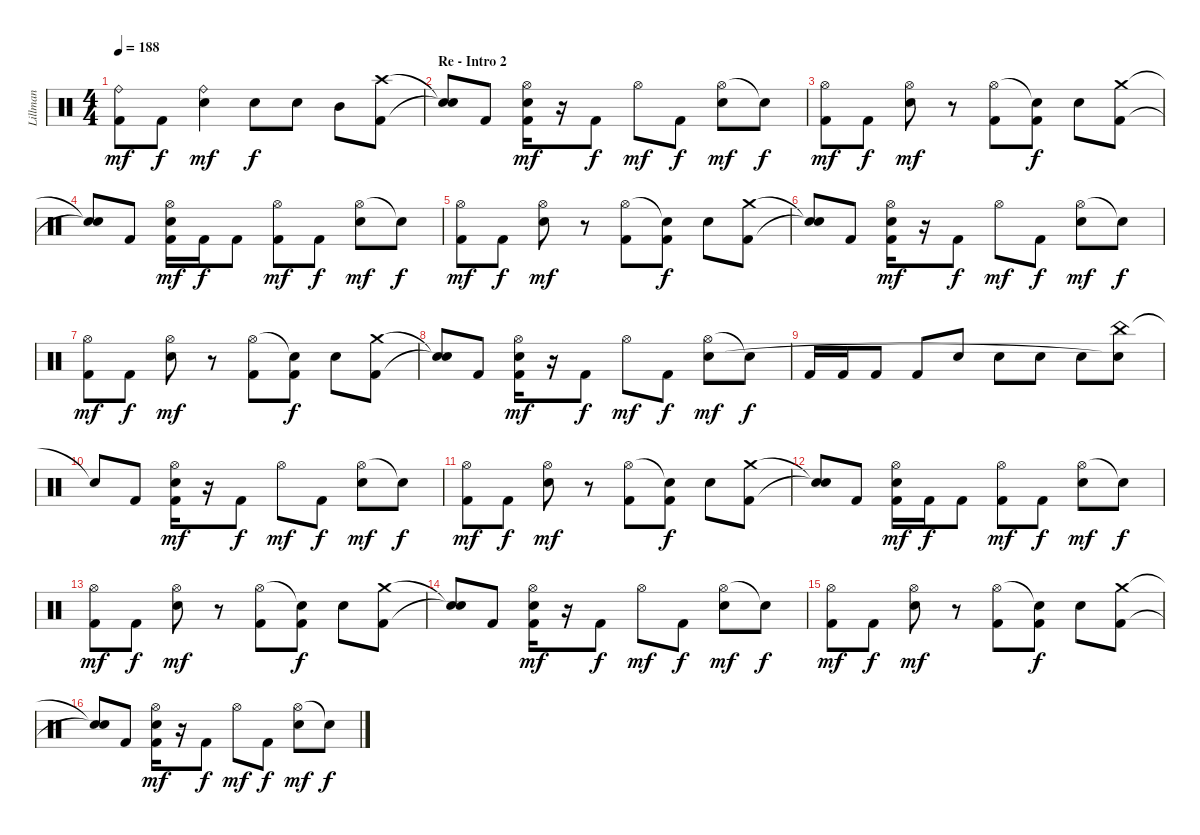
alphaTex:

\track ("Lillman" "Lillman") {instrument percussion}
\staff {score}
\articulation defaults
\ts (4 4)
\tempo 188
\clef neutral
\ks c
("Ride (bell)" "Kick (hit) 2").8{dy mf} "Kick (hit) 2".8{dy f} ("Ride (bell)" "Snare (hit) 2").4{dy mf} "Snare (hit) 2".8{dy f} "Snare (hit) 2".8 "Mid Tom (hit)".8 ("Crash high (hit)" "Kick (hit) 2").8 |
\section ("" "Re - Intro 2")
("Snare (hit)"{t} "Snare (hit)"{t}).8 "Kick (hit) 2".8 ("Hi-Hat (open)" "Snare (hit) 2" "Kick (hit) 2").16{dy mf} r.16 "Kick (hit) 2".8{dy f} "Hi-Hat (open)".8{dy mf} "Kick (hit) 2".8{dy f} ("Hi-Hat (open)" "Snare (hit) 2").8{dy mf} "Snare (hit)"{t}.8{dy f} |
("Hi-Hat (open)" "Kick (hit) 2").8{dy mf} "Kick (hit) 2".8{dy f} ("Hi-Hat (open)" "Snare (hit) 2").8{dy mf} r.8 ("Hi-Hat (open)" "Kick (hit) 2").8 ("Snare (hit)"{t} "Kick (hit) 2").8{dy f} "Snare (hit) 2".8 ("Crash medium (hit)" "Kick (hit) 2").8 |
("Snare (hit)"{t} "Snare (hit)"{t}).8 "Kick (hit) 2".8 ("Hi-Hat (open)" "Snare (hit) 2" "Kick (hit) 2").16{dy mf} "Kick (hit) 2".16{dy f} "Kick (hit) 2".8 ("Hi-Hat (open)" "Kick (hit) 2").8{dy mf} "Kick (hit) 2".8{dy f} ("Hi-Hat (open)" "Snare (hit) 2").8{dy mf} "Snare (hit)"{t}.8{dy f} |
("Hi-Hat (open)" "Kick (hit) 2").8{dy mf} "Kick (hit) 2".8{dy f} ("Hi-Hat (open)" "Snare (hit) 2").8{dy mf} r.8 ("Hi-Hat (open)" "Kick (hit) 2").8 ("Snare (hit)"{t} "Kick (hit) 2").8{dy f} "Snare (hit) 2".8 ("Crash medium (hit)" "Kick (hit) 2").8 |
("Snare (hit)"{t} "Snare (hit)"{t}).8 "Kick (hit) 2".8 ("Hi-Hat (open)" "Snare (hit) 2" "Kick (hit) 2").16{dy mf} r.16 "Kick (hit) 2".8{dy f} "Hi-Hat (open)".8{dy mf} "Kick (hit) 2".8{dy f} ("Hi-Hat (open)" "Snare (hit) 2").8{dy mf} "Snare (hit)"{t}.8{dy f} |
("Hi-Hat (open)" "Kick (hit) 2").8{dy mf} "Kick (hit) 2".8{dy f} ("Hi-Hat (open)" "Snare (hit) 2").8{dy mf} r.8 ("Hi-Hat (open)" "Kick (hit) 2").8 ("Snare (hit)"{t} "Kick (hit) 2").8{dy f} "Snare (hit) 2".8 ("Crash medium (hit)" "Kick (hit) 2").8 |
("Snare (hit)"{t} "Snare (hit)"{t}).8 "Kick (hit) 2".8 ("Hi-Hat (open)" "Snare (hit) 2" "Kick (hit) 2").16{dy mf} r.16 "Kick (hit) 2".8{dy f} "Hi-Hat (open)".8{dy mf} "Kick (hit) 2".8{dy f} ("Hi-Hat (open)" "Snare (hit) 2").8{dy mf} "Snare (hit)"{t}.8{dy f} |
"Kick (hit) 2".16 "Kick (hit) 2".16 "Kick (hit) 2".8 "Kick (hit) 2".8 "Snare (hit) 2".8 "Snare (hit) 2".8 "Snare (hit) 2".8 "Snare (hit) 2".8 ("China (hit)" "Snare (hit) 2"{t}).8 |
"Snare (hit)"{t}.8 "Kick (hit) 2".8 ("Hi-Hat (open)" "Snare (hit) 2" "Kick (hit) 2").16{dy mf} r.16 "Kick (hit) 2".8{dy f} "Hi-Hat (open)".8{dy mf} "Kick (hit) 2".8{dy f} ("Hi-Hat (open)" "Snare (hit) 2").8{dy mf} "Snare (hit)"{t}.8{dy f} |
("Hi-Hat (open)" "Kick (hit) 2").8{dy mf} "Kick (hit) 2".8{dy f} ("Hi-Hat (open)" "Snare (hit) 2").8{dy mf} r.8 ("Hi-Hat (open)" "Kick (hit) 2").8 ("Snare (hit)"{t} "Kick (hit) 2").8{dy f} "Snare (hit) 2".8 ("Crash medium (hit)" "Kick (hit) 2").8 |
("Snare (hit)"{t} "Snare (hit)"{t}).8 "Kick (hit) 2".8 ("Hi-Hat (open)" "Snare (hit) 2" "Kick (hit) 2").16{dy mf} "Kick (hit) 2".16{dy f} "Kick (hit) 2".8 ("Hi-Hat (open)" "Kick (hit) 2").8{dy mf} "Kick (hit) 2".8{dy f} ("Hi-Hat (open)" "Snare (hit) 2").8{dy mf} "Snare (hit)"{t}.8{dy f} |
("Hi-Hat (open)" "Kick (hit) 2").8{dy mf} "Kick (hit) 2".8{dy f} ("Hi-Hat (open)" "Snare (hit) 2").8{dy mf} r.8 ("Hi-Hat (open)" "Kick (hit) 2").8 ("Snare (hit)"{t} "Kick (hit) 2").8{dy f} "Snare (hit) 2".8 ("Crash medium (hit)" "Kick (hit) 2").8 |
("Snare (hit)"{t} "Snare (hit)"{t}).8 "Kick (hit) 2".8 ("Hi-Hat (open)" "Snare (hit) 2" "Kick (hit) 2").16{dy mf} r.16 "Kick (hit) 2".8{dy f} "Hi-Hat (open)".8{dy mf} "Kick (hit) 2".8{dy f} ("Hi-Hat (open)" "Snare (hit) 2").8{dy mf} "Snare (hit)"{t}.8{dy f} |
("Hi-Hat (open)" "Kick (hit) 2").8{dy mf} "Kick (hit) 2".8{dy f} ("Hi-Hat (open)" "Snare (hit) 2").8{dy mf} r.8 ("Hi-Hat (open)" "Kick (hit) 2").8 ("Snare (hit)"{t} "Kick (hit) 2").8{dy f} "Snare (hit) 2".8 ("Crash medium (hit)" "Kick (hit) 2").8 |
("Snare (hit)"{t} "Snare (hit)"{t}).8 "Kick (hit) 2".8 ("Hi-Hat (open)" "Snare (hit) 2" "Kick (hit) 2").16{dy mf} r.16 "Kick (hit) 2".8{dy f} "Hi-Hat (open)".8{dy mf} "Kick (hit) 2".8{dy f} ("Hi-Hat (open)" "Snare (hit) 2").8{dy mf} "Snare (hit)"{t}.8{dy f}
